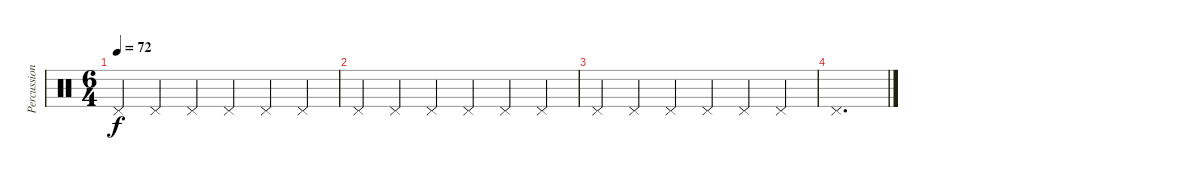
\track ("Percussion" "Percussion") {instrument percussion}
\staff {score}
\articulation defaults
\ts (6 4)
\tempo 72
\clef neutral
\ks c "Pedal Hi-Hat (hit)".4{dy f} "Pedal Hi-Hat (hit)".4 "Pedal Hi-Hat (hit)".4 "Pedal Hi-Hat (hit)".4 "Pedal Hi-Hat (hit)".4 "Pedal Hi-Hat (hit)".4
|
"Pedal Hi-Hat (hit)".4 "Pedal Hi-Hat (hit)".4 "Pedal Hi-Hat (hit)".4 "Pedal Hi-Hat (hit)".4 "Pedal Hi-Hat (hit)".4 "Pedal Hi-Hat (hit)".4 |
"Pedal Hi-Hat (hit)".4 "Pedal Hi-Hat (hit)".4 "Pedal Hi-Hat (hit)".4 "Pedal Hi-Hat (hit)".4 "Pedal Hi-Hat (hit)".4 "Pedal Hi-Hat (hit)".4 |
"Pedal Hi-Hat (hit)".1{d}
